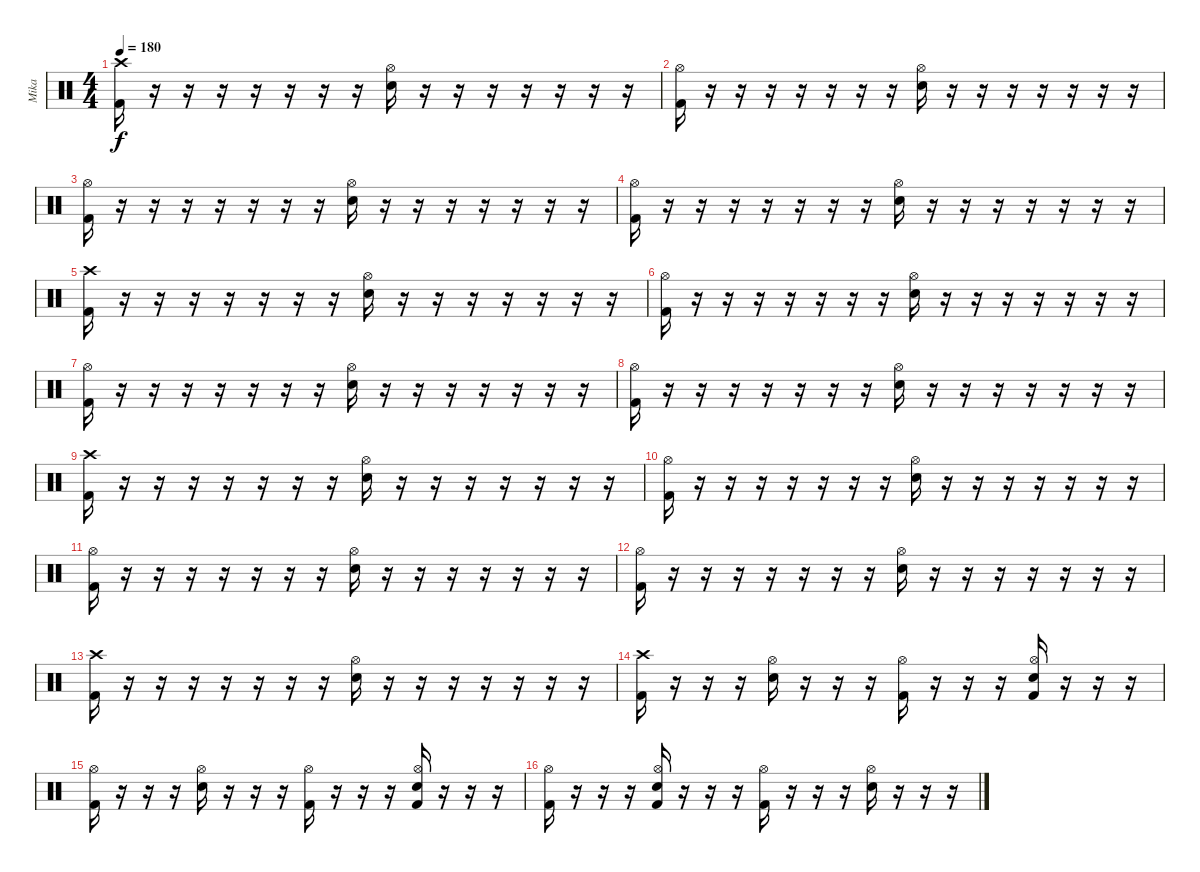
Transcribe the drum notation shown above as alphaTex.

\track ("Mika" "Mika") {instrument percussion}
\staff {score}
\articulation defaults
\ts (4 4)
\tempo 180
\clef neutral
\ks c
("Crash high (hit)" "Kick (hit) 2").16{dy f} r.16 r.16 r.16 r.16 r.16 r.16 r.16 ("Hi-Hat (open)" "Electric Snare (hit)").16 r.16 r.16 r.16 r.16 r.16 r.16 r.16 |
("Hi-Hat (open)" "Kick (hit) 2").16 r.16 r.16 r.16 r.16 r.16 r.16 r.16 ("Hi-Hat (open)" "Electric Snare (hit)").16 r.16 r.16 r.16 r.16 r.16 r.16 r.16 |
("Hi-Hat (open)" "Kick (hit) 2").16 r.16 r.16 r.16 r.16 r.16 r.16 r.16 ("Hi-Hat (open)" "Electric Snare (hit)").16 r.16 r.16 r.16 r.16 r.16 r.16 r.16 |
("Hi-Hat (open)" "Kick (hit) 2").16 r.16 r.16 r.16 r.16 r.16 r.16 r.16 ("Hi-Hat (open)" "Electric Snare (hit)").16 r.16 r.16 r.16 r.16 r.16 r.16 r.16 |
("Crash high (hit)" "Kick (hit) 2").16 r.16 r.16 r.16 r.16 r.16 r.16 r.16 ("Hi-Hat (open)" "Electric Snare (hit)").16 r.16 r.16 r.16 r.16 r.16 r.16 r.16 |
("Hi-Hat (open)" "Kick (hit) 2").16 r.16 r.16 r.16 r.16 r.16 r.16 r.16 ("Hi-Hat (open)" "Electric Snare (hit)").16 r.16 r.16 r.16 r.16 r.16 r.16 r.16 |
("Hi-Hat (open)" "Kick (hit) 2").16 r.16 r.16 r.16 r.16 r.16 r.16 r.16 ("Hi-Hat (open)" "Electric Snare (hit)").16 r.16 r.16 r.16 r.16 r.16 r.16 r.16 |
("Hi-Hat (open)" "Kick (hit) 2").16 r.16 r.16 r.16 r.16 r.16 r.16 r.16 ("Hi-Hat (open)" "Electric Snare (hit)").16 r.16 r.16 r.16 r.16 r.16 r.16 r.16 |
("Crash high (hit)" "Kick (hit) 2").16 r.16 r.16 r.16 r.16 r.16 r.16 r.16 ("Hi-Hat (open)" "Electric Snare (hit)").16 r.16 r.16 r.16 r.16 r.16 r.16 r.16 |
("Hi-Hat (open)" "Kick (hit) 2").16 r.16 r.16 r.16 r.16 r.16 r.16 r.16 ("Hi-Hat (open)" "Electric Snare (hit)").16 r.16 r.16 r.16 r.16 r.16 r.16 r.16 |
("Hi-Hat (open)" "Kick (hit) 2").16 r.16 r.16 r.16 r.16 r.16 r.16 r.16 ("Hi-Hat (open)" "Electric Snare (hit)").16 r.16 r.16 r.16 r.16 r.16 r.16 r.16 |
("Hi-Hat (open)" "Kick (hit) 2").16 r.16 r.16 r.16 r.16 r.16 r.16 r.16 ("Hi-Hat (open)" "Electric Snare (hit)").16 r.16 r.16 r.16 r.16 r.16 r.16 r.16 |
("Crash high (hit)" "Kick (hit) 2").16 r.16 r.16 r.16 r.16 r.16 r.16 r.16 ("Hi-Hat (open)" "Electric Snare (hit)").16 r.16 r.16 r.16 r.16 r.16 r.16 r.16 |
("Crash high (hit)" "Kick (hit) 2").16 r.16 r.16 r.16 ("Hi-Hat (open)" "Electric Snare (hit)").16 r.16 r.16 r.16 ("Hi-Hat (open)" "Kick (hit) 2").16 r.16 r.16 r.16 ("Hi-Hat (open)" "Electric Snare (hit)" "Kick (hit) 2").16 r.16 r.16 r.16 |
("Hi-Hat (open)" "Kick (hit) 2").16 r.16 r.16 r.16 ("Hi-Hat (open)" "Electric Snare (hit)").16 r.16 r.16 r.16 ("Hi-Hat (open)" "Kick (hit) 2").16 r.16 r.16 r.16 ("Hi-Hat (open)" "Electric Snare (hit)" "Kick (hit) 2").16 r.16 r.16 r.16 |
("Hi-Hat (open)" "Kick (hit) 2").16 r.16 r.16 r.16 ("Hi-Hat (open)" "Electric Snare (hit)" "Kick (hit) 2").16 r.16 r.16 r.16 ("Hi-Hat (open)" "Kick (hit) 2").16 r.16 r.16 r.16 ("Hi-Hat (open)" "Electric Snare (hit)").16 r.16 r.16 r.16
